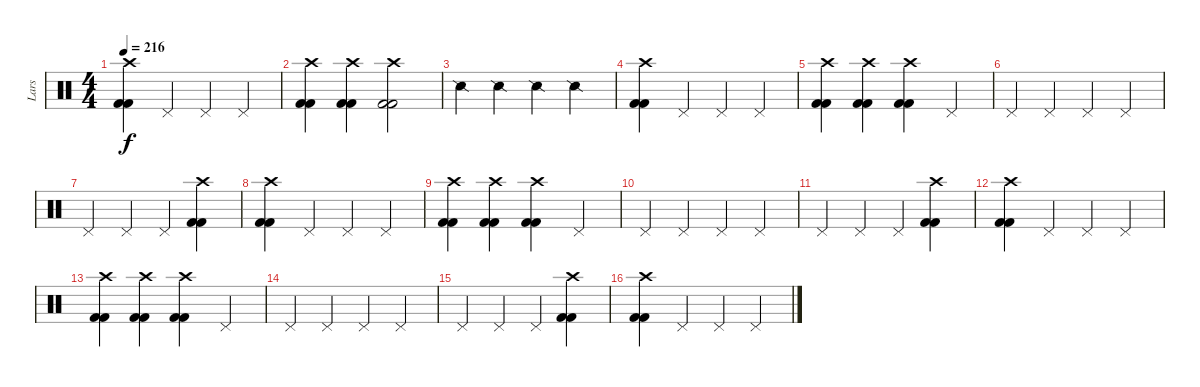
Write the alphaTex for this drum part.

\track ("Lars" "Lars") {instrument percussion}
\staff {score}
\articulation defaults
\ts (4 4)
\tempo 216
\clef neutral
\ks c
("Crash high (hit)" "Kick (hit) 2" "Kick (hit) 2").4{dy f} "Pedal Hi-Hat (hit)".4 "Pedal Hi-Hat (hit)".4 "Pedal Hi-Hat (hit)".4 |
("Crash high (hit)" "Kick (hit) 2" "Kick (hit) 2").4 ("Crash high (hit)" "Kick (hit) 2" "Kick (hit) 2").4 ("Crash high (hit)" "Kick (hit) 2" "Kick (hit) 2").2 |
"Snare (side stick) 2".4 "Snare (side stick) 2".4 "Snare (side stick) 2".4 "Snare (side stick) 2".4 |
("Crash high (hit)" "Kick (hit) 2" "Kick (hit) 2").4 "Pedal Hi-Hat (hit)".4 "Pedal Hi-Hat (hit)".4 "Pedal Hi-Hat (hit)".4 |
("Crash high (hit)" "Kick (hit) 2" "Kick (hit) 2").4 ("Crash high (hit)" "Kick (hit) 2" "Kick (hit) 2").4 ("Crash high (hit)" "Kick (hit) 2" "Kick (hit) 2").4 "Pedal Hi-Hat (hit)".4 |
"Pedal Hi-Hat (hit)".4 "Pedal Hi-Hat (hit)".4 "Pedal Hi-Hat (hit)".4 "Pedal Hi-Hat (hit)".4 |
"Pedal Hi-Hat (hit)".4 "Pedal Hi-Hat (hit)".4 "Pedal Hi-Hat (hit)".4 ("Crash high (hit)" "Kick (hit) 2" "Kick (hit) 2").4 |
("Crash high (hit)" "Kick (hit) 2" "Kick (hit) 2").4 "Pedal Hi-Hat (hit)".4 "Pedal Hi-Hat (hit)".4 "Pedal Hi-Hat (hit)".4 |
("Crash high (hit)" "Kick (hit) 2" "Kick (hit) 2").4 ("Crash high (hit)" "Kick (hit) 2" "Kick (hit) 2").4 ("Crash high (hit)" "Kick (hit) 2" "Kick (hit) 2").4 "Pedal Hi-Hat (hit)".4 |
"Pedal Hi-Hat (hit)".4 "Pedal Hi-Hat (hit)".4 "Pedal Hi-Hat (hit)".4 "Pedal Hi-Hat (hit)".4 |
"Pedal Hi-Hat (hit)".4 "Pedal Hi-Hat (hit)".4 "Pedal Hi-Hat (hit)".4 ("Crash high (hit)" "Kick (hit) 2" "Kick (hit) 2").4 |
("Crash high (hit)" "Kick (hit) 2" "Kick (hit) 2").4 "Pedal Hi-Hat (hit)".4 "Pedal Hi-Hat (hit)".4 "Pedal Hi-Hat (hit)".4 |
("Crash high (hit)" "Kick (hit) 2" "Kick (hit) 2").4 ("Crash high (hit)" "Kick (hit) 2" "Kick (hit) 2").4 ("Crash high (hit)" "Kick (hit) 2" "Kick (hit) 2").4 "Pedal Hi-Hat (hit)".4 |
"Pedal Hi-Hat (hit)".4 "Pedal Hi-Hat (hit)".4 "Pedal Hi-Hat (hit)".4 "Pedal Hi-Hat (hit)".4 |
"Pedal Hi-Hat (hit)".4 "Pedal Hi-Hat (hit)".4 "Pedal Hi-Hat (hit)".4 ("Crash high (hit)" "Kick (hit) 2" "Kick (hit) 2").4 |
("Crash high (hit)" "Kick (hit) 2" "Kick (hit) 2").4 "Pedal Hi-Hat (hit)".4 "Pedal Hi-Hat (hit)".4 "Pedal Hi-Hat (hit)".4
